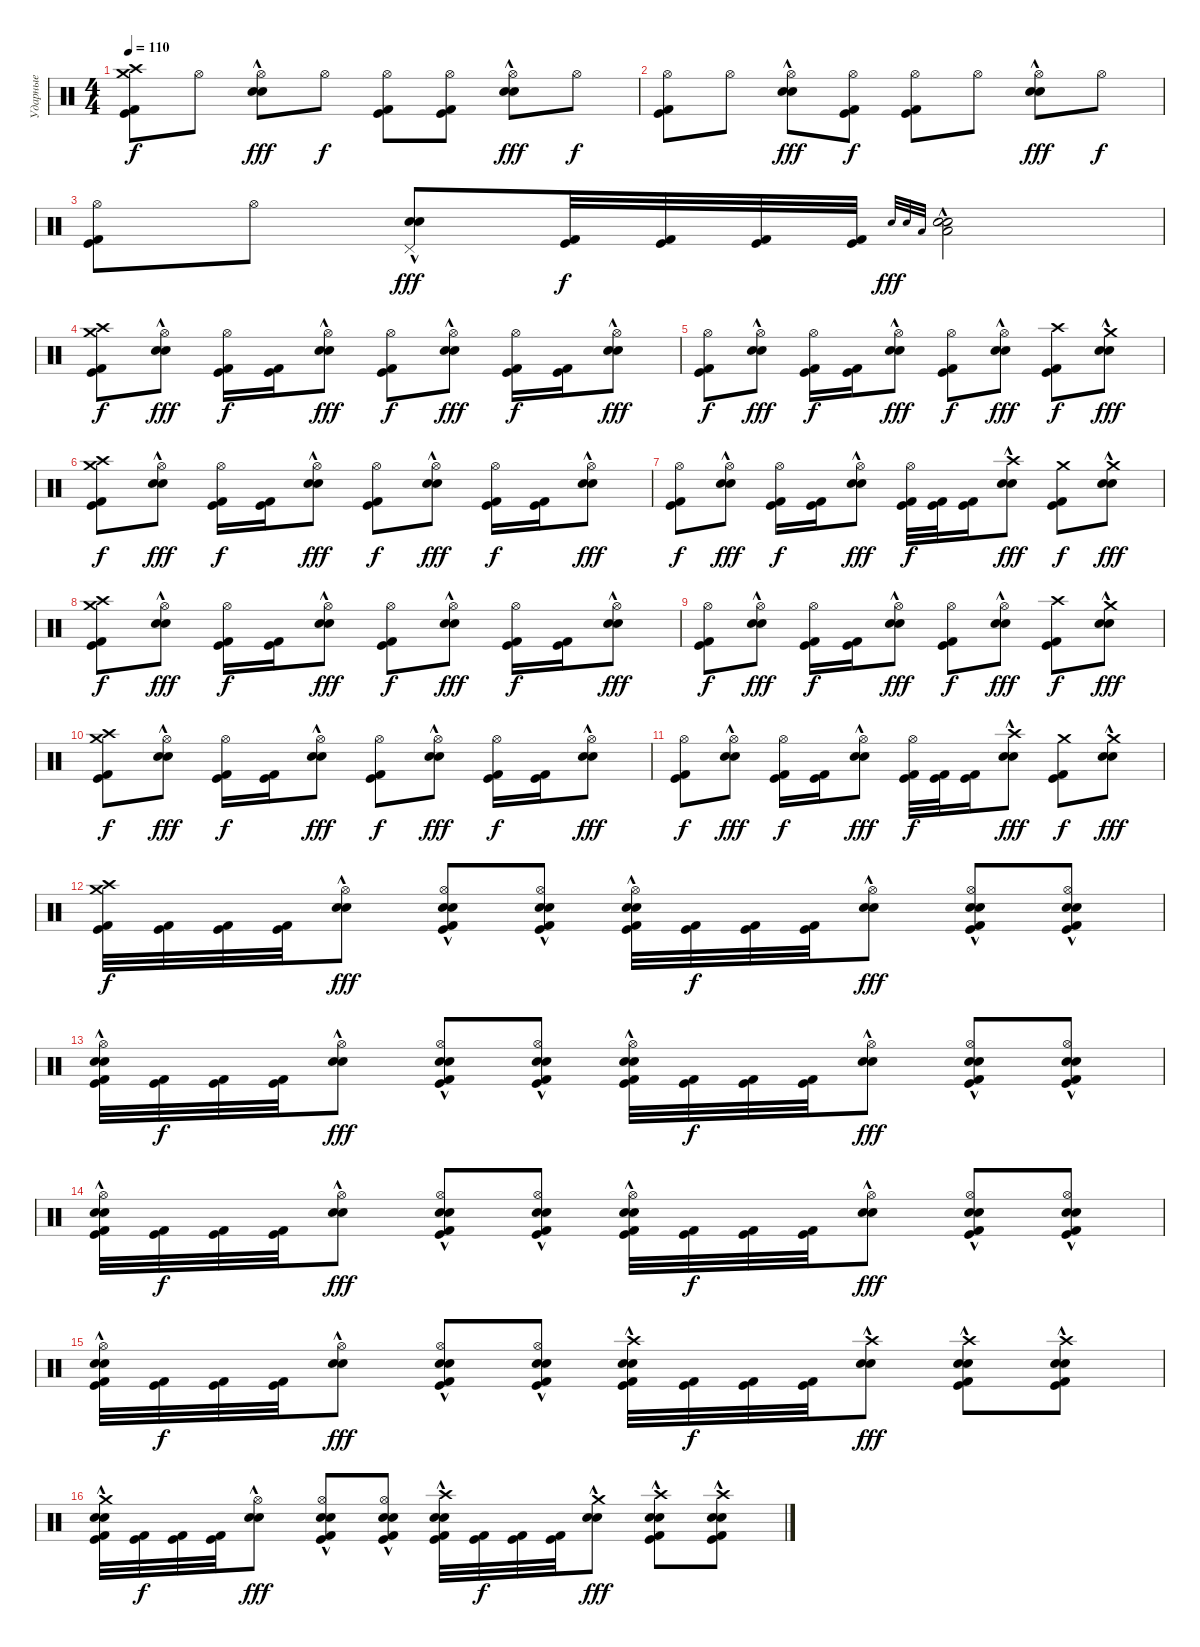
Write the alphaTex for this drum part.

\track ("Ударные" "Ударные") {instrument percussion}
\staff {score}
\articulation defaults
\ts (4 4)
\tempo 110
\clef neutral
\ks c
("Crash high (hit)" "Kick (hit)" "Kick (hit) 2" "Crash medium (hit)").8{dy f} "Hi-Hat (open)".8 ("Hi-Hat (open)" "Snare (hit) 2"{hac} "Electric Snare (hit)"{hac}).8{dy fff} "Hi-Hat (open)".8{dy f} ("Hi-Hat (open)" "Kick (hit)" "Kick (hit) 2").8 ("Hi-Hat (open)" "Kick (hit)" "Kick (hit) 2").8 ("Hi-Hat (open)" "Snare (hit) 2"{hac} "Electric Snare (hit)"{hac}).8{dy fff} "Hi-Hat (open)".8{dy f} |
("Hi-Hat (open)" "Kick (hit)" "Kick (hit) 2").8 "Hi-Hat (open)".8 ("Hi-Hat (open)" "Snare (hit) 2"{hac} "Electric Snare (hit)"{hac}).8{dy fff} ("Hi-Hat (open)" "Kick (hit)" "Kick (hit) 2").8{dy f} ("Hi-Hat (open)" "Kick (hit)" "Kick (hit) 2").8 "Hi-Hat (open)".8 ("Hi-Hat (open)" "Snare (hit) 2"{hac} "Electric Snare (hit)"{hac}).8{dy fff} "Hi-Hat (open)".8{dy f} |
("Hi-Hat (open)" "Kick (hit)" "Kick (hit) 2").8 "Hi-Hat (open)".8 ("Pedal Hi-Hat (hit)" "Snare (hit) 2"{hac} "Electric Snare (hit)"{hac}).8{dy fff} ("Kick (hit)" "Kick (hit) 2").32{dy f} ("Kick (hit)" "Kick (hit) 2").32 ("Kick (hit)" "Kick (hit) 2").32 ("Kick (hit)" "Kick (hit) 2").32 "Snare (hit) 2".32{gr onbeat dy fff} "Electric Snare (hit)".32{gr onbeat} "Low Floor Tom (hit)".32{gr onbeat} ("Snare (hit) 2"{hac} "Electric Snare (hit)"{hac} "Low Floor Tom (hit)"{hac}).2 |
("Crash high (hit)" "Kick (hit)" "Kick (hit) 2" "Crash medium (hit)").8{dy f} ("Hi-Hat (open)" "Snare (hit) 2"{hac} "Electric Snare (hit)"{hac}).8{dy fff} ("Hi-Hat (open)" "Kick (hit)" "Kick (hit) 2").16{dy f} ("Kick (hit)" "Kick (hit) 2").16 ("Hi-Hat (open)" "Snare (hit) 2"{hac} "Electric Snare (hit)"{hac}).8{dy fff} ("Hi-Hat (open)" "Kick (hit)" "Kick (hit) 2").8{dy f} ("Hi-Hat (open)" "Snare (hit) 2"{hac} "Electric Snare (hit)"{hac}).8{dy fff} ("Hi-Hat (open)" "Kick (hit)" "Kick (hit) 2").16{dy f} ("Kick (hit)" "Kick (hit) 2").16 ("Hi-Hat (open)" "Snare (hit) 2"{hac} "Electric Snare (hit)"{hac}).8{dy fff} |
("Hi-Hat (open)" "Kick (hit)" "Kick (hit) 2").8{dy f} ("Hi-Hat (open)" "Snare (hit) 2"{hac} "Electric Snare (hit)"{hac}).8{dy fff} ("Hi-Hat (open)" "Kick (hit)" "Kick (hit) 2").16{dy f} ("Kick (hit)" "Kick (hit) 2").16 ("Hi-Hat (open)" "Snare (hit) 2"{hac} "Electric Snare (hit)"{hac}).8{dy fff} ("Hi-Hat (open)" "Kick (hit)" "Kick (hit) 2").8{dy f} ("Hi-Hat (open)" "Snare (hit) 2"{hac} "Electric Snare (hit)"{hac}).8{dy fff} ("Crash high (hit)" "Kick (hit)" "Kick (hit) 2").8{dy f} ("Crash medium (hit)" "Snare (hit) 2"{hac} "Electric Snare (hit)"{hac}).8{dy fff} |
("Crash high (hit)" "Kick (hit)" "Kick (hit) 2" "Crash medium (hit)").8{dy f} ("Hi-Hat (open)" "Snare (hit) 2"{hac} "Electric Snare (hit)"{hac}).8{dy fff} ("Hi-Hat (open)" "Kick (hit)" "Kick (hit) 2").16{dy f} ("Kick (hit)" "Kick (hit) 2").16 ("Hi-Hat (open)" "Snare (hit) 2"{hac} "Electric Snare (hit)"{hac}).8{dy fff} ("Hi-Hat (open)" "Kick (hit)" "Kick (hit) 2").8{dy f} ("Hi-Hat (open)" "Snare (hit) 2"{hac} "Electric Snare (hit)"{hac}).8{dy fff} ("Hi-Hat (open)" "Kick (hit)" "Kick (hit) 2").16{dy f} ("Kick (hit)" "Kick (hit) 2").16 ("Hi-Hat (open)" "Snare (hit) 2"{hac} "Electric Snare (hit)"{hac}).8{dy fff} |
("Hi-Hat (open)" "Kick (hit)" "Kick (hit) 2").8{dy f} ("Hi-Hat (open)" "Snare (hit) 2"{hac} "Electric Snare (hit)"{hac}).8{dy fff} ("Hi-Hat (open)" "Kick (hit)" "Kick (hit) 2").16{dy f} ("Kick (hit)" "Kick (hit) 2").16 ("Hi-Hat (open)" "Snare (hit) 2"{hac} "Electric Snare (hit)"{hac}).8{dy fff} ("Hi-Hat (open)" "Kick (hit)" "Kick (hit) 2").32{dy f} ("Kick (hit)" "Kick (hit) 2").32 ("Kick (hit)" "Kick (hit) 2").16 ("Crash high (hit)" "Snare (hit) 2"{hac} "Electric Snare (hit)"{hac}).8{dy fff} ("Crash medium (hit)" "Kick (hit)" "Kick (hit) 2").8{dy f} ("Crash medium (hit)" "Snare (hit) 2"{hac} "Electric Snare (hit)"{hac}).8{dy fff} |
("Crash high (hit)" "Kick (hit)" "Kick (hit) 2" "Crash medium (hit)").8{dy f} ("Hi-Hat (open)" "Snare (hit) 2"{hac} "Electric Snare (hit)"{hac}).8{dy fff} ("Hi-Hat (open)" "Kick (hit)" "Kick (hit) 2").16{dy f} ("Kick (hit)" "Kick (hit) 2").16 ("Hi-Hat (open)" "Snare (hit) 2"{hac} "Electric Snare (hit)"{hac}).8{dy fff} ("Hi-Hat (open)" "Kick (hit)" "Kick (hit) 2").8{dy f} ("Hi-Hat (open)" "Snare (hit) 2"{hac} "Electric Snare (hit)"{hac}).8{dy fff} ("Hi-Hat (open)" "Kick (hit)" "Kick (hit) 2").16{dy f} ("Kick (hit)" "Kick (hit) 2").16 ("Hi-Hat (open)" "Snare (hit) 2"{hac} "Electric Snare (hit)"{hac}).8{dy fff} |
("Hi-Hat (open)" "Kick (hit)" "Kick (hit) 2").8{dy f} ("Hi-Hat (open)" "Snare (hit) 2"{hac} "Electric Snare (hit)"{hac}).8{dy fff} ("Hi-Hat (open)" "Kick (hit)" "Kick (hit) 2").16{dy f} ("Kick (hit)" "Kick (hit) 2").16 ("Hi-Hat (open)" "Snare (hit) 2"{hac} "Electric Snare (hit)"{hac}).8{dy fff} ("Hi-Hat (open)" "Kick (hit)" "Kick (hit) 2").8{dy f} ("Hi-Hat (open)" "Snare (hit) 2"{hac} "Electric Snare (hit)"{hac}).8{dy fff} ("Crash high (hit)" "Kick (hit)" "Kick (hit) 2").8{dy f} ("Crash medium (hit)" "Snare (hit) 2"{hac} "Electric Snare (hit)"{hac}).8{dy fff} |
("Crash high (hit)" "Kick (hit)" "Kick (hit) 2" "Crash medium (hit)").8{dy f} ("Hi-Hat (open)" "Snare (hit) 2"{hac} "Electric Snare (hit)"{hac}).8{dy fff} ("Hi-Hat (open)" "Kick (hit)" "Kick (hit) 2").16{dy f} ("Kick (hit)" "Kick (hit) 2").16 ("Hi-Hat (open)" "Snare (hit) 2"{hac} "Electric Snare (hit)"{hac}).8{dy fff} ("Hi-Hat (open)" "Kick (hit)" "Kick (hit) 2").8{dy f} ("Hi-Hat (open)" "Snare (hit) 2"{hac} "Electric Snare (hit)"{hac}).8{dy fff} ("Hi-Hat (open)" "Kick (hit)" "Kick (hit) 2").16{dy f} ("Kick (hit)" "Kick (hit) 2").16 ("Hi-Hat (open)" "Snare (hit) 2"{hac} "Electric Snare (hit)"{hac}).8{dy fff} |
("Hi-Hat (open)" "Kick (hit)" "Kick (hit) 2").8{dy f} ("Hi-Hat (open)" "Snare (hit) 2"{hac} "Electric Snare (hit)"{hac}).8{dy fff} ("Hi-Hat (open)" "Kick (hit)" "Kick (hit) 2").16{dy f} ("Kick (hit)" "Kick (hit) 2").16 ("Hi-Hat (open)" "Snare (hit) 2"{hac} "Electric Snare (hit)"{hac}).8{dy fff} ("Hi-Hat (open)" "Kick (hit)" "Kick (hit) 2").32{dy f} ("Kick (hit)" "Kick (hit) 2").32 ("Kick (hit)" "Kick (hit) 2").16 ("Crash high (hit)" "Snare (hit) 2"{hac} "Electric Snare (hit)"{hac}).8{dy fff} ("Crash medium (hit)" "Kick (hit)" "Kick (hit) 2").8{dy f} ("Crash medium (hit)" "Snare (hit) 2"{hac} "Electric Snare (hit)"{hac}).8{dy fff} |
("Crash high (hit)" "Kick (hit)" "Kick (hit) 2" "Crash medium (hit)").32{dy f} ("Kick (hit)" "Kick (hit) 2").32 ("Kick (hit)" "Kick (hit) 2").32 ("Kick (hit)" "Kick (hit) 2").32 ("Hi-Hat (open)" "Snare (hit) 2"{hac} "Electric Snare (hit)"{hac}).8{dy fff} ("Hi-Hat (open)" "Kick (hit)" "Kick (hit) 2" "Snare (hit) 2"{hac} "Electric Snare (hit)"{hac}).8 ("Hi-Hat (open)" "Kick (hit)" "Kick (hit) 2" "Snare (hit) 2"{hac} "Electric Snare (hit)"{hac}).8 ("Hi-Hat (open)" "Kick (hit)" "Kick (hit) 2" "Snare (hit) 2"{hac} "Electric Snare (hit)"{hac}).32 ("Kick (hit)" "Kick (hit) 2").32{dy f} ("Kick (hit)" "Kick (hit) 2").32 ("Kick (hit)" "Kick (hit) 2").32 ("Hi-Hat (open)" "Snare (hit) 2"{hac} "Electric Snare (hit)"{hac}).8{dy fff} ("Hi-Hat (open)" "Kick (hit)" "Kick (hit) 2" "Snare (hit) 2"{hac} "Electric Snare (hit)"{hac}).8 ("Hi-Hat (open)" "Kick (hit)" "Kick (hit) 2" "Snare (hit) 2"{hac} "Electric Snare (hit)"{hac}).8 |
("Hi-Hat (open)" "Kick (hit)" "Kick (hit) 2" "Snare (hit) 2"{hac} "Electric Snare (hit)"{hac}).32 ("Kick (hit)" "Kick (hit) 2").32{dy f} ("Kick (hit)" "Kick (hit) 2").32 ("Kick (hit)" "Kick (hit) 2").32 ("Hi-Hat (open)" "Snare (hit) 2"{hac} "Electric Snare (hit)"{hac}).8{dy fff} ("Hi-Hat (open)" "Kick (hit)" "Kick (hit) 2" "Snare (hit) 2"{hac} "Electric Snare (hit)"{hac}).8 ("Hi-Hat (open)" "Kick (hit)" "Kick (hit) 2" "Snare (hit) 2"{hac} "Electric Snare (hit)"{hac}).8 ("Hi-Hat (open)" "Kick (hit)" "Kick (hit) 2" "Snare (hit) 2"{hac} "Electric Snare (hit)"{hac}).32 ("Kick (hit)" "Kick (hit) 2").32{dy f} ("Kick (hit)" "Kick (hit) 2").32 ("Kick (hit)" "Kick (hit) 2").32 ("Hi-Hat (open)" "Snare (hit) 2"{hac} "Electric Snare (hit)"{hac}).8{dy fff} ("Hi-Hat (open)" "Kick (hit)" "Kick (hit) 2" "Snare (hit) 2"{hac} "Electric Snare (hit)"{hac}).8 ("Hi-Hat (open)" "Kick (hit)" "Kick (hit) 2" "Snare (hit) 2"{hac} "Electric Snare (hit)"{hac}).8 |
("Hi-Hat (open)" "Kick (hit)" "Kick (hit) 2" "Snare (hit) 2"{hac} "Electric Snare (hit)"{hac}).32 ("Kick (hit)" "Kick (hit) 2").32{dy f} ("Kick (hit)" "Kick (hit) 2").32 ("Kick (hit)" "Kick (hit) 2").32 ("Hi-Hat (open)" "Snare (hit) 2"{hac} "Electric Snare (hit)"{hac}).8{dy fff} ("Hi-Hat (open)" "Kick (hit)" "Kick (hit) 2" "Snare (hit) 2"{hac} "Electric Snare (hit)"{hac}).8 ("Hi-Hat (open)" "Kick (hit)" "Kick (hit) 2" "Snare (hit) 2"{hac} "Electric Snare (hit)"{hac}).8 ("Hi-Hat (open)" "Kick (hit)" "Kick (hit) 2" "Snare (hit) 2"{hac} "Electric Snare (hit)"{hac}).32 ("Kick (hit)" "Kick (hit) 2").32{dy f} ("Kick (hit)" "Kick (hit) 2").32 ("Kick (hit)" "Kick (hit) 2").32 ("Hi-Hat (open)" "Snare (hit) 2"{hac} "Electric Snare (hit)"{hac}).8{dy fff} ("Hi-Hat (open)" "Kick (hit)" "Kick (hit) 2" "Snare (hit) 2"{hac} "Electric Snare (hit)"{hac}).8 ("Hi-Hat (open)" "Kick (hit)" "Kick (hit) 2" "Snare (hit) 2"{hac} "Electric Snare (hit)"{hac}).8 |
("Hi-Hat (open)" "Kick (hit)" "Kick (hit) 2" "Snare (hit) 2"{hac} "Electric Snare (hit)"{hac}).32 ("Kick (hit)" "Kick (hit) 2").32{dy f} ("Kick (hit)" "Kick (hit) 2").32 ("Kick (hit)" "Kick (hit) 2").32 ("Hi-Hat (open)" "Snare (hit) 2"{hac} "Electric Snare (hit)"{hac}).8{dy fff} ("Hi-Hat (open)" "Kick (hit)" "Kick (hit) 2" "Snare (hit) 2"{hac} "Electric Snare (hit)"{hac}).8 ("Hi-Hat (open)" "Kick (hit)" "Kick (hit) 2" "Snare (hit) 2"{hac} "Electric Snare (hit)"{hac}).8 ("Crash high (hit)" "Kick (hit)" "Kick (hit) 2" "Snare (hit) 2"{hac} "Electric Snare (hit)"{hac}).32 ("Kick (hit)" "Kick (hit) 2").32{dy f} ("Kick (hit)" "Kick (hit) 2").32 ("Kick (hit)" "Kick (hit) 2").32 ("Crash high (hit)" "Snare (hit) 2"{hac} "Electric Snare (hit)"{hac}).8{dy fff} ("Crash high (hit)" "Kick (hit)" "Kick (hit) 2" "Snare (hit) 2"{hac} "Electric Snare (hit)"{hac}).8 ("Crash high (hit)" "Kick (hit)" "Kick (hit) 2" "Snare (hit) 2"{hac} "Electric Snare (hit)"{hac}).8 |
("Crash medium (hit)" "Kick (hit)" "Kick (hit) 2" "Snare (hit) 2"{hac} "Electric Snare (hit)"{hac}).32 ("Kick (hit)" "Kick (hit) 2").32{dy f} ("Kick (hit)" "Kick (hit) 2").32 ("Kick (hit)" "Kick (hit) 2").32 ("Hi-Hat (open)" "Snare (hit) 2"{hac} "Electric Snare (hit)"{hac}).8{dy fff} ("Hi-Hat (open)" "Kick (hit)" "Kick (hit) 2" "Snare (hit) 2"{hac} "Electric Snare (hit)"{hac}).8 ("Hi-Hat (open)" "Kick (hit)" "Kick (hit) 2" "Snare (hit) 2"{hac} "Electric Snare (hit)"{hac}).8 ("Crash high (hit)" "Kick (hit)" "Kick (hit) 2" "Snare (hit) 2"{hac} "Electric Snare (hit)"{hac}).32 ("Kick (hit)" "Kick (hit) 2").32{dy f} ("Kick (hit)" "Kick (hit) 2").32 ("Kick (hit)" "Kick (hit) 2").32 ("Crash medium (hit)" "Snare (hit) 2"{hac} "Electric Snare (hit)"{hac}).8{dy fff} ("Crash high (hit)" "Kick (hit)" "Kick (hit) 2" "Snare (hit) 2"{hac} "Electric Snare (hit)"{hac}).8 ("Crash high (hit)" "Kick (hit)" "Kick (hit) 2" "Snare (hit) 2"{hac} "Electric Snare (hit)"{hac}).8
